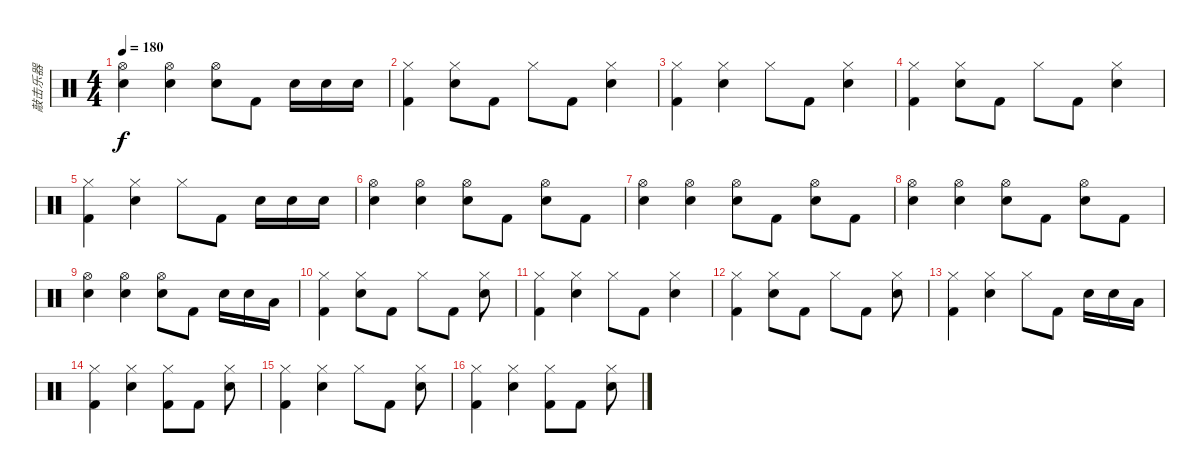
\track ("敲击乐器" "敲击乐器") {instrument percussion}
\staff {score}
\articulation defaults
\ts (4 4)
\tempo 180
\clef neutral
\ks c
("Hi-Hat (open)" "Electric Snare (hit)").4{dy f} ("Hi-Hat (open)" "Electric Snare (hit)").4 ("Hi-Hat (open)" "Electric Snare (hit)").8 "Kick (hit) 2".8 "Electric Snare (hit)".16 "Electric Snare (hit)".16 "Electric Snare (hit)".16 |
("Hi-Hat (closed)" "Kick (hit) 2").4 ("Hi-Hat (closed)" "Electric Snare (hit)").8 "Kick (hit) 2".8 "Hi-Hat (closed)".8 "Kick (hit) 2".8 ("Hi-Hat (closed)" "Electric Snare (hit)").4 |
("Hi-Hat (closed)" "Kick (hit) 2").4 ("Hi-Hat (closed)" "Electric Snare (hit)").4 "Hi-Hat (closed)".8 "Kick (hit) 2".8 ("Hi-Hat (closed)" "Electric Snare (hit)").4 |
("Hi-Hat (closed)" "Kick (hit) 2").4 ("Hi-Hat (closed)" "Electric Snare (hit)").8 "Kick (hit) 2".8 "Hi-Hat (closed)".8 "Kick (hit) 2".8 ("Hi-Hat (closed)" "Electric Snare (hit)").4 |
("Hi-Hat (closed)" "Kick (hit) 2").4 ("Hi-Hat (closed)" "Electric Snare (hit)").4 "Hi-Hat (closed)".8 "Kick (hit) 2".8 "Electric Snare (hit)".16 "Electric Snare (hit)".16 "Electric Snare (hit)".16 |
("Hi-Hat (open)" "Electric Snare (hit)").4 ("Hi-Hat (open)" "Electric Snare (hit)").4 ("Hi-Hat (open)" "Electric Snare (hit)").8 "Kick (hit) 2".8 ("Hi-Hat (open)" "Electric Snare (hit)").8 "Kick (hit) 2".8 |
("Hi-Hat (open)" "Electric Snare (hit)").4 ("Hi-Hat (open)" "Electric Snare (hit)").4 ("Hi-Hat (open)" "Electric Snare (hit)").8 "Kick (hit) 2".8 ("Hi-Hat (open)" "Electric Snare (hit)").8 "Kick (hit) 2".8 |
("Hi-Hat (open)" "Electric Snare (hit)").4 ("Hi-Hat (open)" "Electric Snare (hit)").4 ("Hi-Hat (open)" "Electric Snare (hit)").8 "Kick (hit) 2".8 ("Hi-Hat (open)" "Electric Snare (hit)").8 "Kick (hit) 2".8 |
("Hi-Hat (open)" "Electric Snare (hit)").4 ("Hi-Hat (open)" "Electric Snare (hit)").4 ("Hi-Hat (open)" "Electric Snare (hit)").8 "Kick (hit) 2".8 "Electric Snare (hit)".16 "Electric Snare (hit)".16 "Low Tom (hit)".16 |
("Hi-Hat (closed)" "Kick (hit) 2").4 ("Hi-Hat (closed)" "Electric Snare (hit)").8 "Kick (hit) 2".8 "Hi-Hat (closed)".8 "Kick (hit) 2".8 ("Hi-Hat (closed)" "Electric Snare (hit)").8 |
("Hi-Hat (closed)" "Kick (hit) 2").4 ("Hi-Hat (closed)" "Electric Snare (hit)").4 "Hi-Hat (closed)".8 "Kick (hit) 2".8 ("Hi-Hat (closed)" "Electric Snare (hit)").4 |
("Hi-Hat (closed)" "Kick (hit) 2").4 ("Hi-Hat (closed)" "Electric Snare (hit)").8 "Kick (hit) 2".8 "Hi-Hat (closed)".8 "Kick (hit) 2".8 ("Hi-Hat (closed)" "Electric Snare (hit)").8 |
("Hi-Hat (closed)" "Kick (hit) 2").4 ("Hi-Hat (closed)" "Electric Snare (hit)").4 "Hi-Hat (closed)".8 "Kick (hit) 2".8 "Electric Snare (hit)".16 "Electric Snare (hit)".16 "Low Tom (hit)".16 |
("Hi-Hat (closed)" "Kick (hit) 2").4 ("Hi-Hat (closed)" "Electric Snare (hit)").4 ("Hi-Hat (closed)" "Kick (hit) 2").8 "Kick (hit) 2".8 ("Hi-Hat (closed)" "Electric Snare (hit)").8 |
("Hi-Hat (closed)" "Kick (hit) 2").4 ("Hi-Hat (closed)" "Electric Snare (hit)").4 "Hi-Hat (closed)".8 "Kick (hit) 2".8 ("Hi-Hat (closed)" "Electric Snare (hit)").8 |
("Hi-Hat (closed)" "Kick (hit) 2").4 ("Hi-Hat (closed)" "Electric Snare (hit)").4 ("Hi-Hat (closed)" "Kick (hit) 2").8 "Kick (hit) 2".8 ("Hi-Hat (closed)" "Electric Snare (hit)").8
